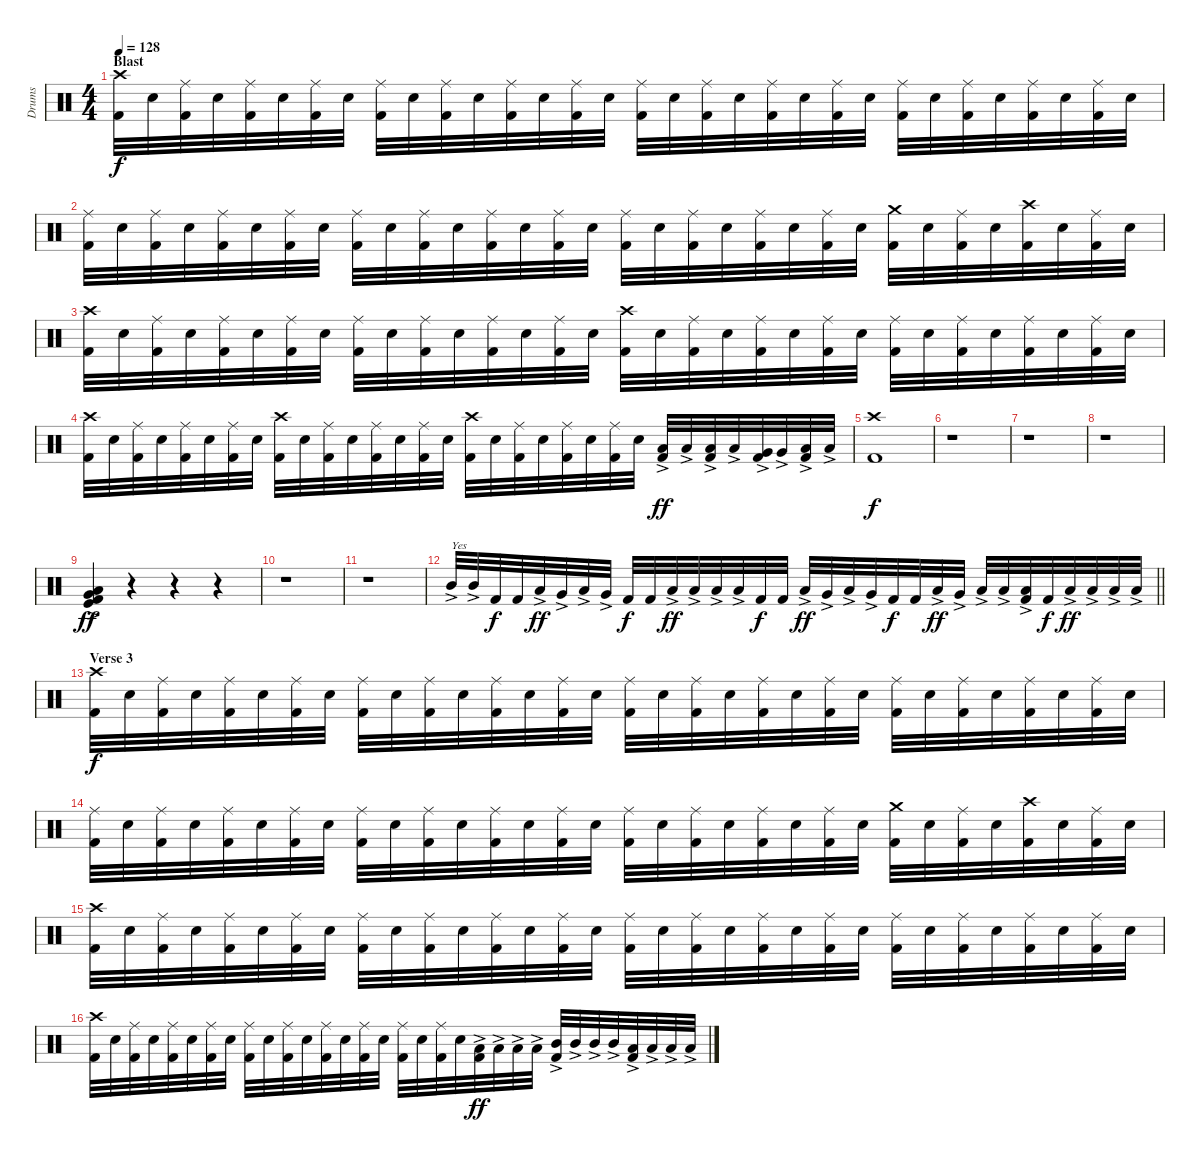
\track ("Drums" "Drums") {instrument percussion}
\staff {score}
\articulation defaults
\ts (4 4)
\section ("" "Blast")
\tempo 128
\clef neutral
\ks c
("Crash high (hit)" "Kick (hit) 2").32{dy f} "Electric Snare (hit)".32 ("Ride (middle)" "Kick (hit) 2").32 "Electric Snare (hit)".32 ("Ride (middle)" "Kick (hit) 2").32 "Electric Snare (hit)".32 ("Ride (middle)" "Kick (hit) 2").32 "Electric Snare (hit)".32 ("Ride (middle)" "Kick (hit) 2").32 "Electric Snare (hit)".32 ("Ride (middle)" "Kick (hit) 2").32 "Electric Snare (hit)".32 ("Ride (middle)" "Kick (hit) 2").32 "Electric Snare (hit)".32 ("Ride (middle)" "Kick (hit) 2").32 "Electric Snare (hit)".32 ("Ride (middle)" "Kick (hit) 2").32 "Electric Snare (hit)".32 ("Ride (middle)" "Kick (hit) 2").32 "Electric Snare (hit)".32 ("Ride (middle)" "Kick (hit) 2").32 "Electric Snare (hit)".32 ("Ride (middle)" "Kick (hit) 2").32 "Electric Snare (hit)".32 ("Ride (middle)" "Kick (hit) 2").32 "Electric Snare (hit)".32 ("Ride (middle)" "Kick (hit) 2").32 "Electric Snare (hit)".32 ("Ride (middle)" "Kick (hit) 2").32 "Electric Snare (hit)".32 ("Ride (middle)" "Kick (hit) 2").32 "Electric Snare (hit)".32 |
("Ride (middle)" "Kick (hit) 2").32 "Electric Snare (hit)".32 ("Ride (middle)" "Kick (hit) 2").32 "Electric Snare (hit)".32 ("Ride (middle)" "Kick (hit) 2").32 "Electric Snare (hit)".32 ("Ride (middle)" "Kick (hit) 2").32 "Electric Snare (hit)".32 ("Ride (middle)" "Kick (hit) 2").32 "Electric Snare (hit)".32 ("Ride (middle)" "Kick (hit) 2").32 "Electric Snare (hit)".32 ("Ride (middle)" "Kick (hit) 2").32 "Electric Snare (hit)".32 ("Ride (middle)" "Kick (hit) 2").32 "Electric Snare (hit)".32 ("Ride (middle)" "Kick (hit) 2").32 "Electric Snare (hit)".32 ("Ride (middle)" "Kick (hit) 2").32 "Electric Snare (hit)".32 ("Ride (middle)" "Kick (hit) 2").32 "Electric Snare (hit)".32 ("Ride (middle)" "Kick (hit) 2").32 "Electric Snare (hit)".32 ("Crash medium (hit)" "Kick (hit) 2").32 "Electric Snare (hit)".32 ("Ride (middle)" "Kick (hit) 2").32 "Electric Snare (hit)".32 ("Crash high (hit)" "Kick (hit) 2").32 "Electric Snare (hit)".32 ("Ride (middle)" "Kick (hit) 2").32 "Electric Snare (hit)".32 |
("Crash high (hit)" "Kick (hit) 2").32 "Electric Snare (hit)".32 ("Ride (middle)" "Kick (hit) 2").32 "Electric Snare (hit)".32 ("Ride (middle)" "Kick (hit) 2").32 "Electric Snare (hit)".32 ("Ride (middle)" "Kick (hit) 2").32 "Electric Snare (hit)".32 ("Ride (middle)" "Kick (hit) 2").32 "Electric Snare (hit)".32 ("Ride (middle)" "Kick (hit) 2").32 "Electric Snare (hit)".32 ("Ride (middle)" "Kick (hit) 2").32 "Electric Snare (hit)".32 ("Ride (middle)" "Kick (hit) 2").32 "Electric Snare (hit)".32 ("Crash high (hit)" "Kick (hit) 2").32 "Electric Snare (hit)".32 ("Ride (middle)" "Kick (hit) 2").32 "Electric Snare (hit)".32 ("Ride (middle)" "Kick (hit) 2").32 "Electric Snare (hit)".32 ("Ride (middle)" "Kick (hit) 2").32 "Electric Snare (hit)".32 ("Ride (middle)" "Kick (hit) 2").32 "Electric Snare (hit)".32 ("Ride (middle)" "Kick (hit) 2").32 "Electric Snare (hit)".32 ("Ride (middle)" "Kick (hit) 2").32 "Electric Snare (hit)".32 ("Ride (middle)" "Kick (hit) 2").32 "Electric Snare (hit)".32 |
("Crash high (hit)" "Kick (hit) 2").32 "Electric Snare (hit)".32 ("Ride (middle)" "Kick (hit) 2").32 "Electric Snare (hit)".32 ("Ride (middle)" "Kick (hit) 2").32 "Electric Snare (hit)".32 ("Ride (middle)" "Kick (hit) 2").32 "Electric Snare (hit)".32 ("Crash high (hit)" "Kick (hit) 2").32 "Electric Snare (hit)".32 ("Ride (middle)" "Kick (hit) 2").32 "Electric Snare (hit)".32 ("Ride (middle)" "Kick (hit) 2").32 "Electric Snare (hit)".32 ("Ride (middle)" "Kick (hit) 2").32 "Electric Snare (hit)".32 ("Crash high (hit)" "Kick (hit) 2").32 "Electric Snare (hit)".32 ("Ride (middle)" "Kick (hit) 2").32 "Electric Snare (hit)".32 ("Ride (middle)" "Kick (hit) 2").32 "Electric Snare (hit)".32 ("Ride (middle)" "Kick (hit) 2").32 "Electric Snare (hit)".32 ("Low Tom (hit)"{ac} "Kick (hit) 2").32{dy ff} "Low Tom (hit)"{ac}.32 ("Low Tom (hit)"{ac} "Kick (hit) 2").32 "Low Tom (hit)"{ac}.32 ("Very Low Tom (hit)"{ac} "Kick (hit) 2").32 "Very Low Tom (hit)"{ac}.32 ("Low Floor Tom (hit)"{ac} "Kick (hit) 2").32 "Low Floor Tom (hit)"{ac}.32 |
("Crash high (hit)" "Kick (hit) 2").1{dy f} |
r.1 |
r.1 |
r.1 |
("Very Low Tom (hit)"{ac} "Low Floor Tom (hit)"{ac} "Kick (hit)" "Kick (hit) 2").4{dy ff} r.4 r.4 r.4 |
r.1 |
r.1 |
\barLineRight lightlight "Mid Tom (hit)"{ac}.32{txt "Yes"} "Mid Tom (hit)"{ac}.32 "Kick (hit) 2".32{dy f} "Kick (hit) 2".32 "Low Floor Tom (hit)"{ac}.32{dy ff} "Very Low Tom (hit)"{ac}.32 "Low Floor Tom (hit)"{ac}.32 "Very Low Tom (hit)"{ac}.32 "Kick (hit) 2".32{dy f} "Kick (hit) 2".32 "Low Tom (hit)"{ac}.32{dy ff} "Low Tom (hit)"{ac}.32 "Low Tom (hit)"{ac}.32 "Low Floor Tom (hit)"{ac}.32 "Kick (hit) 2".32{dy f} "Kick (hit) 2".32 "Low Tom (hit)"{ac}.32{dy ff} "Very Low Tom (hit)"{ac}.32 "Low Tom (hit)"{ac}.32 "Very Low Tom (hit)"{ac}.32 "Kick (hit) 2".32{dy f} "Kick (hit) 2".32 "Low Tom (hit)"{ac}.32{dy ff} "Very Low Tom (hit)"{ac}.32 "Low Tom (hit)"{ac}.32 "Low Tom (hit)"{ac}.32
("Low Tom (hit)"{ac} "Kick (hit) 2").32 "Kick (hit) 2".32{dy f} "Low Floor Tom (hit)"{ac}.32{dy ff} "Low Floor Tom (hit)"{ac}.32 "Low Floor Tom (hit)"{ac}.32 "Low Floor Tom (hit)"{ac}.32 |
\section ("" "Verse 3")
("Crash high (hit)" "Kick (hit) 2").32{dy f} "Electric Snare (hit)".32 ("Ride (middle)" "Kick (hit) 2").32 "Electric Snare (hit)".32 ("Ride (middle)" "Kick (hit) 2").32 "Electric Snare (hit)".32 ("Ride (middle)" "Kick (hit) 2").32 "Electric Snare (hit)".32 ("Ride (middle)" "Kick (hit) 2").32 "Electric Snare (hit)".32 ("Ride (middle)" "Kick (hit) 2").32 "Electric Snare (hit)".32 ("Ride (middle)" "Kick (hit) 2").32 "Electric Snare (hit)".32 ("Ride (middle)" "Kick (hit) 2").32 "Electric Snare (hit)".32 ("Ride (middle)" "Kick (hit) 2").32 "Electric Snare (hit)".32 ("Ride (middle)" "Kick (hit) 2").32 "Electric Snare (hit)".32 ("Ride (middle)" "Kick (hit) 2").32 "Electric Snare (hit)".32 ("Ride (middle)" "Kick (hit) 2").32 "Electric Snare (hit)".32 ("Ride (middle)" "Kick (hit) 2").32 "Electric Snare (hit)".32 ("Ride (middle)" "Kick (hit) 2").32 "Electric Snare (hit)".32 ("Ride (middle)" "Kick (hit) 2").32 "Electric Snare (hit)".32 ("Ride (middle)" "Kick (hit) 2").32 "Electric Snare (hit)".32 |
("Ride (middle)" "Kick (hit) 2").32 "Electric Snare (hit)".32 ("Ride (middle)" "Kick (hit) 2").32 "Electric Snare (hit)".32 ("Ride (middle)" "Kick (hit) 2").32 "Electric Snare (hit)".32 ("Ride (middle)" "Kick (hit) 2").32 "Electric Snare (hit)".32 ("Ride (middle)" "Kick (hit) 2").32 "Electric Snare (hit)".32 ("Ride (middle)" "Kick (hit) 2").32 "Electric Snare (hit)".32 ("Ride (middle)" "Kick (hit) 2").32 "Electric Snare (hit)".32 ("Ride (middle)" "Kick (hit) 2").32 "Electric Snare (hit)".32 ("Ride (middle)" "Kick (hit) 2").32 "Electric Snare (hit)".32 ("Ride (middle)" "Kick (hit) 2").32 "Electric Snare (hit)".32 ("Ride (middle)" "Kick (hit) 2").32 "Electric Snare (hit)".32 ("Ride (middle)" "Kick (hit) 2").32 "Electric Snare (hit)".32 ("Crash medium (hit)" "Kick (hit) 2").32 "Electric Snare (hit)".32 ("Ride (middle)" "Kick (hit) 2").32 "Electric Snare (hit)".32 ("Crash high (hit)" "Kick (hit) 2").32 "Electric Snare (hit)".32 ("Ride (middle)" "Kick (hit) 2").32 "Electric Snare (hit)".32 |
("Crash high (hit)" "Kick (hit) 2").32 "Electric Snare (hit)".32 ("Ride (middle)" "Kick (hit) 2").32 "Electric Snare (hit)".32 ("Ride (middle)" "Kick (hit) 2").32 "Electric Snare (hit)".32 ("Ride (middle)" "Kick (hit) 2").32 "Electric Snare (hit)".32 ("Ride (middle)" "Kick (hit) 2").32 "Electric Snare (hit)".32 ("Ride (middle)" "Kick (hit) 2").32 "Electric Snare (hit)".32 ("Ride (middle)" "Kick (hit) 2").32 "Electric Snare (hit)".32 ("Ride (middle)" "Kick (hit) 2").32 "Electric Snare (hit)".32 ("Ride (middle)" "Kick (hit) 2").32 "Electric Snare (hit)".32 ("Ride (middle)" "Kick (hit) 2").32 "Electric Snare (hit)".32 ("Ride (middle)" "Kick (hit) 2").32 "Electric Snare (hit)".32 ("Ride (middle)" "Kick (hit) 2").32 "Electric Snare (hit)".32 ("Ride (middle)" "Kick (hit) 2").32 "Electric Snare (hit)".32 ("Ride (middle)" "Kick (hit) 2").32 "Electric Snare (hit)".32 ("Ride (middle)" "Kick (hit) 2").32 "Electric Snare (hit)".32 ("Ride (middle)" "Kick (hit) 2").32 "Electric Snare (hit)".32 |
("Crash high (hit)" "Kick (hit) 2").32 "Electric Snare (hit)".32 ("Ride (middle)" "Kick (hit) 2").32 "Electric Snare (hit)".32 ("Ride (middle)" "Kick (hit) 2").32 "Electric Snare (hit)".32 ("Ride (middle)" "Kick (hit) 2").32 "Electric Snare (hit)".32 ("Ride (middle)" "Kick (hit) 2").32 "Electric Snare (hit)".32 ("Ride (middle)" "Kick (hit) 2").32 "Electric Snare (hit)".32 ("Ride (middle)" "Kick (hit) 2").32 "Electric Snare (hit)".32 ("Ride (middle)" "Kick (hit) 2").32 "Electric Snare (hit)".32 ("Ride (middle)" "Kick (hit) 2").32 "Electric Snare (hit)".32 ("Ride (middle)" "Kick (hit) 2").32 "Electric Snare (hit)".32 ("Low Tom (hit)"{ac} "Kick (hit) 2").32{dy ff} "Low Tom (hit)"{ac}.32 "Low Tom (hit)"{ac}.32 "Low Tom (hit)"{ac}.32 ("Mid Tom (hit)"{ac} "Kick (hit) 2").32 "Mid Tom (hit)"{ac}.32 "Mid Tom (hit)"{ac}.32 "Mid Tom (hit)"{ac}.32 ("Low Tom (hit)"{ac} "Kick (hit) 2").32 "Low Tom (hit)"{ac}.32 "Low Tom (hit)"{ac}.32 "Low Tom (hit)"{ac}.32
